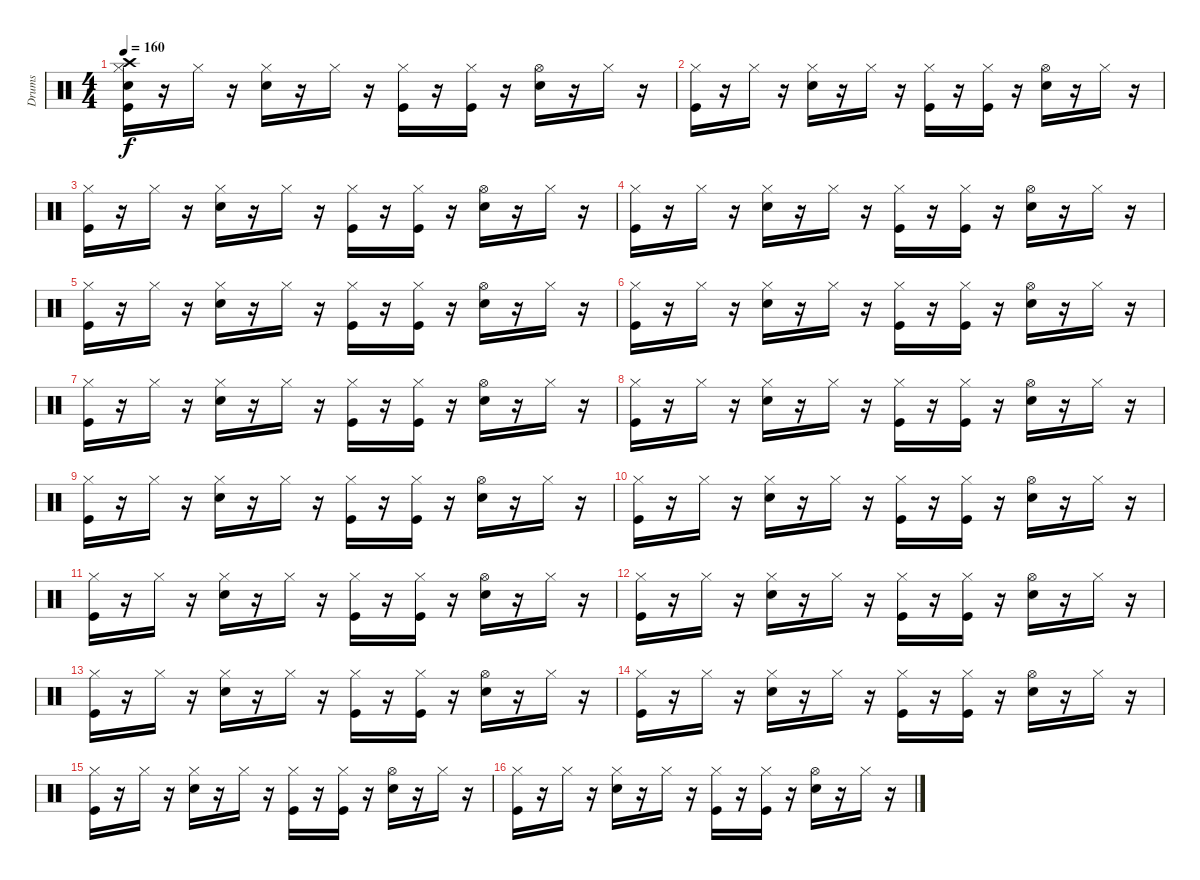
\track ("Drums" "Drums") {instrument percussion}
\staff {score}
\articulation defaults
\ts (4 4)
\tempo 160
\clef neutral
\ks c
("Crash high (hit)" "Snare (hit) 2" "Hi-Hat (closed)" "Kick (hit)").16{dy f} r.16 "Hi-Hat (closed)".16 r.16 ("Hi-Hat (closed)" "Snare (hit) 2").16 r.16 "Hi-Hat (closed)".16 r.16 ("Hi-Hat (closed)" "Kick (hit)").16 r.16 ("Kick (hit)" "Hi-Hat (closed)").16 r.16 ("Hi-Hat (open)" "Snare (hit) 2").16 r.16 "Hi-Hat (closed)".16 r.16 |
("Hi-Hat (closed)" "Kick (hit)").16 r.16 "Hi-Hat (closed)".16 r.16 ("Hi-Hat (closed)" "Snare (hit) 2").16 r.16 "Hi-Hat (closed)".16 r.16 ("Hi-Hat (closed)" "Kick (hit)").16 r.16 ("Kick (hit)" "Hi-Hat (closed)").16 r.16 ("Hi-Hat (open)" "Snare (hit) 2").16 r.16 "Hi-Hat (closed)".16 r.16 |
("Hi-Hat (closed)" "Kick (hit)").16 r.16 "Hi-Hat (closed)".16 r.16 ("Hi-Hat (closed)" "Snare (hit) 2").16 r.16 "Hi-Hat (closed)".16 r.16 ("Hi-Hat (closed)" "Kick (hit)").16 r.16 ("Kick (hit)" "Hi-Hat (closed)").16 r.16 ("Hi-Hat (open)" "Snare (hit) 2").16 r.16 "Hi-Hat (closed)".16 r.16 |
("Hi-Hat (closed)" "Kick (hit)").16 r.16 "Hi-Hat (closed)".16 r.16 ("Hi-Hat (closed)" "Snare (hit) 2").16 r.16 "Hi-Hat (closed)".16 r.16 ("Hi-Hat (closed)" "Kick (hit)").16 r.16 ("Kick (hit)" "Hi-Hat (closed)").16 r.16 ("Hi-Hat (open)" "Snare (hit) 2").16 r.16 "Hi-Hat (closed)".16 r.16 |
("Hi-Hat (closed)" "Kick (hit)").16 r.16 "Hi-Hat (closed)".16 r.16 ("Hi-Hat (closed)" "Snare (hit) 2").16 r.16 "Hi-Hat (closed)".16 r.16 ("Hi-Hat (closed)" "Kick (hit)").16 r.16 ("Kick (hit)" "Hi-Hat (closed)").16 r.16 ("Hi-Hat (open)" "Snare (hit) 2").16 r.16 "Hi-Hat (closed)".16 r.16 |
("Hi-Hat (closed)" "Kick (hit)").16 r.16 "Hi-Hat (closed)".16 r.16 ("Hi-Hat (closed)" "Snare (hit) 2").16 r.16 "Hi-Hat (closed)".16 r.16 ("Hi-Hat (closed)" "Kick (hit)").16 r.16 ("Kick (hit)" "Hi-Hat (closed)").16 r.16 ("Hi-Hat (open)" "Snare (hit) 2").16 r.16 "Hi-Hat (closed)".16 r.16 |
("Hi-Hat (closed)" "Kick (hit)").16 r.16 "Hi-Hat (closed)".16 r.16 ("Hi-Hat (closed)" "Snare (hit) 2").16 r.16 "Hi-Hat (closed)".16 r.16 ("Hi-Hat (closed)" "Kick (hit)").16 r.16 ("Kick (hit)" "Hi-Hat (closed)").16 r.16 ("Hi-Hat (open)" "Snare (hit) 2").16 r.16 "Hi-Hat (closed)".16 r.16 |
("Hi-Hat (closed)" "Kick (hit)").16 r.16 "Hi-Hat (closed)".16 r.16 ("Hi-Hat (closed)" "Snare (hit) 2").16 r.16 "Hi-Hat (closed)".16 r.16 ("Hi-Hat (closed)" "Kick (hit)").16 r.16 ("Kick (hit)" "Hi-Hat (closed)").16 r.16 ("Hi-Hat (open)" "Snare (hit) 2").16 r.16 "Hi-Hat (closed)".16 r.16 |
("Hi-Hat (closed)" "Kick (hit)").16 r.16 "Hi-Hat (closed)".16 r.16 ("Hi-Hat (closed)" "Snare (hit) 2").16 r.16 "Hi-Hat (closed)".16 r.16 ("Hi-Hat (closed)" "Kick (hit)").16 r.16 ("Kick (hit)" "Hi-Hat (closed)").16 r.16 ("Hi-Hat (open)" "Snare (hit) 2").16 r.16 "Hi-Hat (closed)".16 r.16 |
("Hi-Hat (closed)" "Kick (hit)").16 r.16 "Hi-Hat (closed)".16 r.16 ("Hi-Hat (closed)" "Snare (hit) 2").16 r.16 "Hi-Hat (closed)".16 r.16 ("Hi-Hat (closed)" "Kick (hit)").16 r.16 ("Kick (hit)" "Hi-Hat (closed)").16 r.16 ("Hi-Hat (open)" "Snare (hit) 2").16 r.16 "Hi-Hat (closed)".16 r.16 |
("Hi-Hat (closed)" "Kick (hit)").16 r.16 "Hi-Hat (closed)".16 r.16 ("Hi-Hat (closed)" "Snare (hit) 2").16 r.16 "Hi-Hat (closed)".16 r.16 ("Hi-Hat (closed)" "Kick (hit)").16 r.16 ("Kick (hit)" "Hi-Hat (closed)").16 r.16 ("Hi-Hat (open)" "Snare (hit) 2").16 r.16 "Hi-Hat (closed)".16 r.16 |
("Hi-Hat (closed)" "Kick (hit)").16 r.16 "Hi-Hat (closed)".16 r.16 ("Hi-Hat (closed)" "Snare (hit) 2").16 r.16 "Hi-Hat (closed)".16 r.16 ("Hi-Hat (closed)" "Kick (hit)").16 r.16 ("Kick (hit)" "Hi-Hat (closed)").16 r.16 ("Hi-Hat (open)" "Snare (hit) 2").16 r.16 "Hi-Hat (closed)".16 r.16 |
("Hi-Hat (closed)" "Kick (hit)").16 r.16 "Hi-Hat (closed)".16 r.16 ("Hi-Hat (closed)" "Snare (hit) 2").16 r.16 "Hi-Hat (closed)".16 r.16 ("Hi-Hat (closed)" "Kick (hit)").16 r.16 ("Kick (hit)" "Hi-Hat (closed)").16 r.16 ("Hi-Hat (open)" "Snare (hit) 2").16 r.16 "Hi-Hat (closed)".16 r.16 |
("Hi-Hat (closed)" "Kick (hit)").16 r.16 "Hi-Hat (closed)".16 r.16 ("Hi-Hat (closed)" "Snare (hit) 2").16 r.16 "Hi-Hat (closed)".16 r.16 ("Hi-Hat (closed)" "Kick (hit)").16 r.16 ("Kick (hit)" "Hi-Hat (closed)").16 r.16 ("Hi-Hat (open)" "Snare (hit) 2").16 r.16 "Hi-Hat (closed)".16 r.16 |
("Hi-Hat (closed)" "Kick (hit)").16 r.16 "Hi-Hat (closed)".16 r.16 ("Hi-Hat (closed)" "Snare (hit) 2").16 r.16 "Hi-Hat (closed)".16 r.16 ("Hi-Hat (closed)" "Kick (hit)").16 r.16 ("Kick (hit)" "Hi-Hat (closed)").16 r.16 ("Hi-Hat (open)" "Snare (hit) 2").16 r.16 "Hi-Hat (closed)".16 r.16 |
("Hi-Hat (closed)" "Kick (hit)").16 r.16 "Hi-Hat (closed)".16 r.16 ("Hi-Hat (closed)" "Snare (hit) 2").16 r.16 "Hi-Hat (closed)".16 r.16 ("Hi-Hat (closed)" "Kick (hit)").16 r.16 ("Kick (hit)" "Hi-Hat (closed)").16 r.16 ("Hi-Hat (open)" "Snare (hit) 2").16 r.16 "Hi-Hat (closed)".16 r.16
